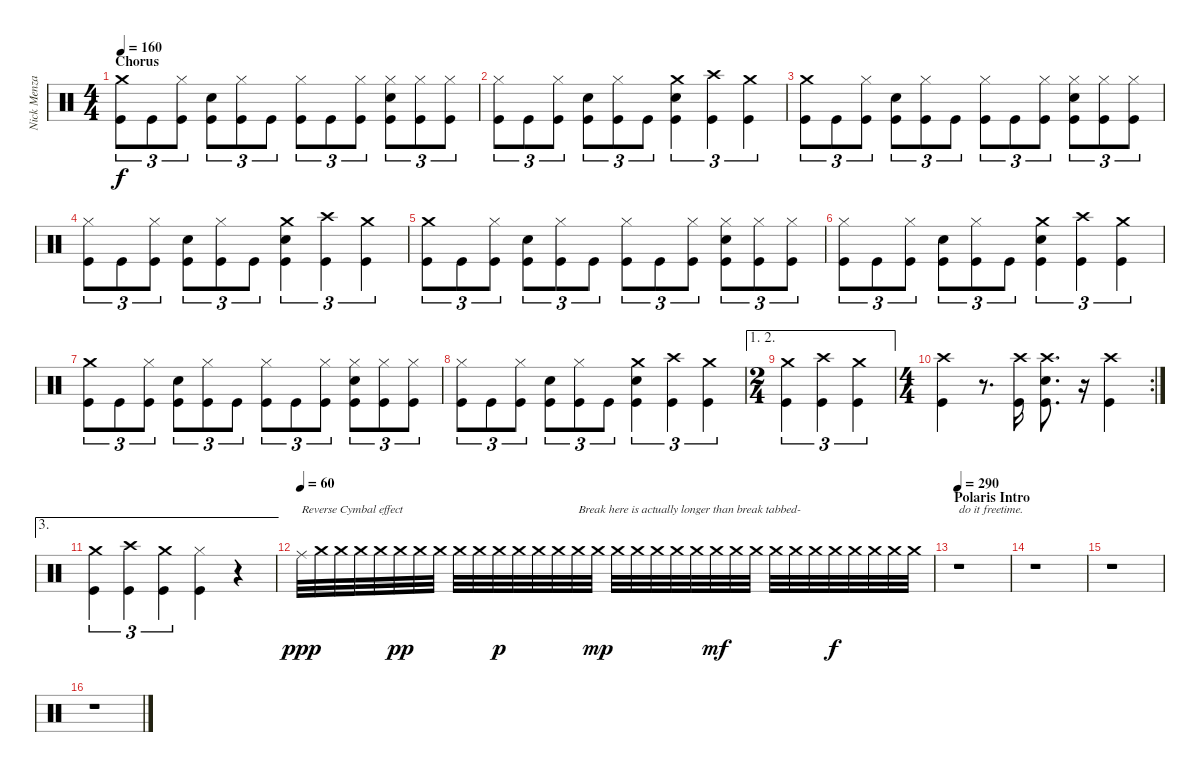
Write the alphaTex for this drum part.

\track ("Nick Menza" "Nick Menza") {instrument percussion}
\staff {score}
\articulation defaults
\ts (4 4)
\section ("" "Chorus")
\tempo 160
\clef neutral
\ks c
("Crash medium (hit)" "Kick (hit)").8{tu (3 2) dy f} "Kick (hit)".8{tu (3 2)} ("Hi-Hat (closed)" "Kick (hit)").8{tu (3 2)} ("Snare (hit) 2" "Kick (hit)").8{tu (3 2)} ("Hi-Hat (closed)" "Kick (hit)").8{tu (3 2)} "Kick (hit)".8{tu (3 2)} ("Hi-Hat (closed)" "Kick (hit)").8{tu (3 2)} "Kick (hit)".8{tu (3 2)} ("Hi-Hat (closed)" "Kick (hit)").8{tu (3 2)} ("Hi-Hat (closed)" "Snare (hit) 2" "Kick (hit)").8{tu (3 2)} ("Hi-Hat (closed)" "Kick (hit)").8{tu (3 2)} ("Hi-Hat (closed)" "Kick (hit)").8{tu (3 2)} |
("Hi-Hat (closed)" "Kick (hit)").8{tu (3 2)} "Kick (hit)".8{tu (3 2)} ("Hi-Hat (closed)" "Kick (hit)").8{tu (3 2)} ("Snare (hit) 2" "Kick (hit)").8{tu (3 2)} ("Hi-Hat (closed)" "Kick (hit)").8{tu (3 2)} "Kick (hit)".8{tu (3 2)} ("Crash medium (hit)" "Snare (hit) 2" "Kick (hit)").4{tu (3 2)} ("Crash high (hit)" "Kick (hit)").4{tu (3 2)} ("Crash medium (hit)" "Kick (hit)").4{tu (3 2)} |
("Crash medium (hit)" "Kick (hit)").8{tu (3 2)} "Kick (hit)".8{tu (3 2)} ("Hi-Hat (closed)" "Kick (hit)").8{tu (3 2)} ("Snare (hit) 2" "Kick (hit)").8{tu (3 2)} ("Hi-Hat (closed)" "Kick (hit)").8{tu (3 2)} "Kick (hit)".8{tu (3 2)} ("Hi-Hat (closed)" "Kick (hit)").8{tu (3 2)} "Kick (hit)".8{tu (3 2)} ("Hi-Hat (closed)" "Kick (hit)").8{tu (3 2)} ("Hi-Hat (closed)" "Snare (hit) 2" "Kick (hit)").8{tu (3 2)} ("Hi-Hat (closed)" "Kick (hit)").8{tu (3 2)} ("Hi-Hat (closed)" "Kick (hit)").8{tu (3 2)} |
("Hi-Hat (closed)" "Kick (hit)").8{tu (3 2)} "Kick (hit)".8{tu (3 2)} ("Hi-Hat (closed)" "Kick (hit)").8{tu (3 2)} ("Snare (hit) 2" "Kick (hit)").8{tu (3 2)} ("Hi-Hat (closed)" "Kick (hit)").8{tu (3 2)} "Kick (hit)".8{tu (3 2)} ("Crash medium (hit)" "Snare (hit) 2" "Kick (hit)").4{tu (3 2)} ("Crash high (hit)" "Kick (hit)").4{tu (3 2)} ("Crash medium (hit)" "Kick (hit)").4{tu (3 2)} |
("Crash medium (hit)" "Kick (hit)").8{tu (3 2)} "Kick (hit)".8{tu (3 2)} ("Hi-Hat (closed)" "Kick (hit)").8{tu (3 2)} ("Snare (hit) 2" "Kick (hit)").8{tu (3 2)} ("Hi-Hat (closed)" "Kick (hit)").8{tu (3 2)} "Kick (hit)".8{tu (3 2)} ("Hi-Hat (closed)" "Kick (hit)").8{tu (3 2)} "Kick (hit)".8{tu (3 2)} ("Hi-Hat (closed)" "Kick (hit)").8{tu (3 2)} ("Hi-Hat (closed)" "Snare (hit) 2" "Kick (hit)").8{tu (3 2)} ("Hi-Hat (closed)" "Kick (hit)").8{tu (3 2)} ("Hi-Hat (closed)" "Kick (hit)").8{tu (3 2)} |
("Hi-Hat (closed)" "Kick (hit)").8{tu (3 2)} "Kick (hit)".8{tu (3 2)} ("Hi-Hat (closed)" "Kick (hit)").8{tu (3 2)} ("Snare (hit) 2" "Kick (hit)").8{tu (3 2)} ("Hi-Hat (closed)" "Kick (hit)").8{tu (3 2)} "Kick (hit)".8{tu (3 2)} ("Crash medium (hit)" "Snare (hit) 2" "Kick (hit)").4{tu (3 2)} ("Crash high (hit)" "Kick (hit)").4{tu (3 2)} ("Crash medium (hit)" "Kick (hit)").4{tu (3 2)} |
("Crash medium (hit)" "Kick (hit)").8{tu (3 2)} "Kick (hit)".8{tu (3 2)} ("Hi-Hat (closed)" "Kick (hit)").8{tu (3 2)} ("Snare (hit) 2" "Kick (hit)").8{tu (3 2)} ("Hi-Hat (closed)" "Kick (hit)").8{tu (3 2)} "Kick (hit)".8{tu (3 2)} ("Hi-Hat (closed)" "Kick (hit)").8{tu (3 2)} "Kick (hit)".8{tu (3 2)} ("Hi-Hat (closed)" "Kick (hit)").8{tu (3 2)} ("Hi-Hat (closed)" "Snare (hit) 2" "Kick (hit)").8{tu (3 2)} ("Hi-Hat (closed)" "Kick (hit)").8{tu (3 2)} ("Hi-Hat (closed)" "Kick (hit)").8{tu (3 2)} |
("Hi-Hat (closed)" "Kick (hit)").8{tu (3 2)} "Kick (hit)".8{tu (3 2)} ("Hi-Hat (closed)" "Kick (hit)").8{tu (3 2)} ("Snare (hit) 2" "Kick (hit)").8{tu (3 2)} ("Hi-Hat (closed)" "Kick (hit)").8{tu (3 2)} "Kick (hit)".8{tu (3 2)} ("Crash medium (hit)" "Snare (hit) 2" "Kick (hit)").4{tu (3 2)} ("Crash high (hit)" "Kick (hit)").4{tu (3 2)} ("Crash medium (hit)" "Kick (hit)").4{tu (3 2)} |
\ae (1 2)
\ts (2 4)
("Crash medium (hit)" "Kick (hit)").4{tu (3 2)} ("Crash high (hit)" "Kick (hit)").4{tu (3 2)} ("Crash medium (hit)" "Kick (hit)").4{tu (3 2)} |
\rc 2
\ts (4 4)
("Crash high (hit)" "Kick (hit)").4 r.8{d} ("Crash high (hit)" "Kick (hit)").16 ("Crash high (hit)" "Snare (hit) 2" "Kick (hit)").8{d} r.16 ("Crash high (hit)" "Kick (hit)").4 |
\ae 3
("Crash medium (hit)" "Kick (hit)").4{tu (3 2)} ("Crash high (hit)" "Kick (hit)").4{tu (3 2)} ("Crash medium (hit)" "Kick (hit)").4{tu (3 2)} ("Hi-Hat (closed)" "Kick (hit)").4 r.4 |
\tempo (60)
"Ride (middle)".32{txt "Reverse Cymbal effect" dy ppp} "Crash medium (hit)".32 "Crash medium (hit)".32 "Crash medium (hit)".32 "Crash medium (hit)".32 "Crash medium (hit)".32{dy pp} "Crash medium (hit)".32 "Crash medium (hit)".32 "Crash medium (hit)".32 "Crash medium (hit)".32 "Crash medium (hit)".32{dy p} "Crash medium (hit)".32 "Crash medium (hit)".32 "Crash medium (hit)".32 "Crash medium (hit)".32{txt "Break here is actually longer than break tabbed-"} "Crash medium (hit)".32{dy mp} "Crash medium (hit)".32 "Crash medium (hit)".32 "Crash medium (hit)".32 "Crash medium (hit)".32 "Crash medium (hit)".32 "Crash medium (hit)".32{dy mf} "Crash medium (hit)".32 "Crash medium (hit)".32 "Crash medium (hit)".32 "Crash medium (hit)".32 "Crash medium (hit)".32 "Crash medium (hit)".32{dy f} "Crash medium (hit)".32 "Crash medium (hit)".32 "Crash medium (hit)".32 "Crash medium (hit)".32 |
\section ("" "Polaris Intro")
\tempo 290
r.1{txt "do it freetime."} |
r.1 |
r.1 |
r.1
